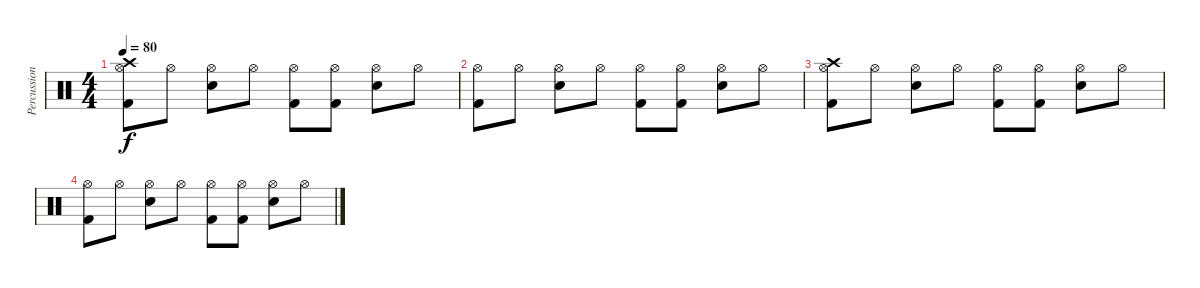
\track ("Percussion" "Percussion") {instrument percussion}
\staff {score}
\articulation defaults
\ts (4 4)
\tempo 80
\clef neutral
\ks c
("Kick (hit) 2" "Hi-Hat (open)" "Crash high (hit)").8{dy f} "Hi-Hat (open)".8 ("Snare (hit) 2" "Hi-Hat (open)").8 "Hi-Hat (open)".8 ("Kick (hit) 2" "Hi-Hat (open)").8 ("Kick (hit) 2" "Hi-Hat (open)").8 ("Snare (hit) 2" "Hi-Hat (open)").8 "Hi-Hat (open)".8 |
("Kick (hit) 2" "Hi-Hat (open)").8 "Hi-Hat (open)".8 ("Snare (hit) 2" "Hi-Hat (open)").8 "Hi-Hat (open)".8 ("Kick (hit) 2" "Hi-Hat (open)").8 ("Kick (hit) 2" "Hi-Hat (open)").8 ("Snare (hit) 2" "Hi-Hat (open)").8 "Hi-Hat (open)".8 |
("Kick (hit) 2" "Hi-Hat (open)" "Crash high (hit)").8 "Hi-Hat (open)".8 ("Snare (hit) 2" "Hi-Hat (open)").8 "Hi-Hat (open)".8 ("Kick (hit) 2" "Hi-Hat (open)").8 ("Kick (hit) 2" "Hi-Hat (open)").8 ("Snare (hit) 2" "Hi-Hat (open)").8 "Hi-Hat (open)".8 |
("Kick (hit) 2" "Hi-Hat (open)").8 "Hi-Hat (open)".8 ("Snare (hit) 2" "Hi-Hat (open)").8 "Hi-Hat (open)".8 ("Kick (hit) 2" "Hi-Hat (open)").8 ("Kick (hit) 2" "Hi-Hat (open)").8 ("Snare (hit) 2" "Hi-Hat (open)").8 "Hi-Hat (open)".8
